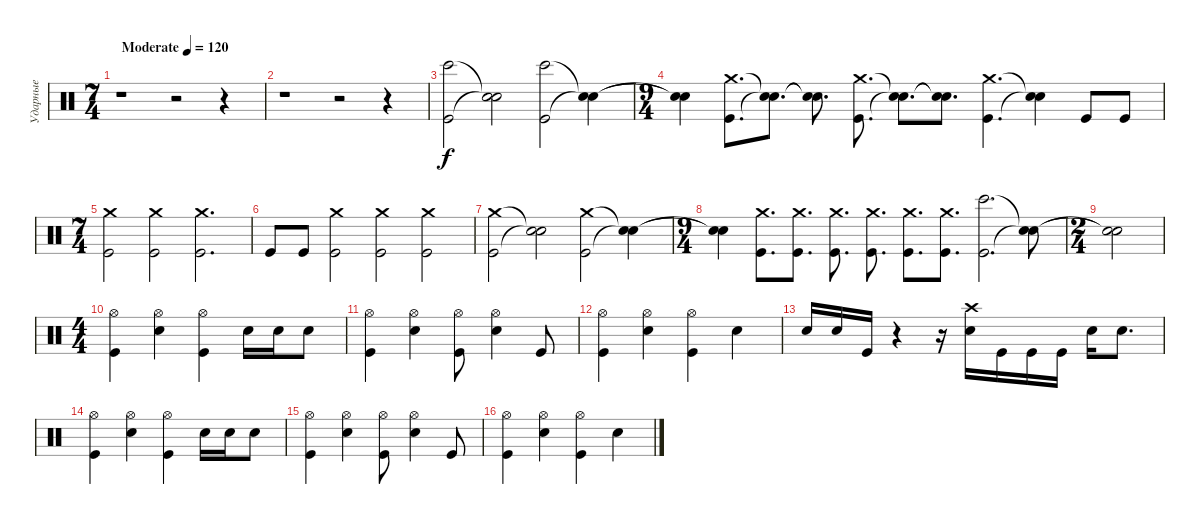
\track ("Ударные" "Ударные") {instrument percussion}
\staff {score}
\articulation defaults
\ts (7 4)
\tempo (120 "Moderate")
\clef neutral
\ks c
r.1{dy f} r.2 r.4 |
r.1 r.2 r.4 |
("Bongo High (hit)" "Kick (hit)").2 ("Snare (hit)"{t} "Snare (hit)"{t}).2 ("Bongo High (hit)" "Kick (hit)").2 ("Snare (hit)"{t} "Snare (hit)"{t}).4 |
\ts (9 4)
("Snare (hit)"{t} "Snare (hit)"{t}).4 ("Crash medium (hit)" "Kick (hit)").8{d} ("Snare (hit)"{t} "Snare (hit)"{t}).8{d} ("Snare (hit)"{t} "Snare (hit)"{t}).8{d} ("Crash medium (hit)" "Kick (hit)").8{d} ("Snare (hit)"{t} "Snare (hit)"{t}).8{d} ("Snare (hit)"{t} "Snare (hit)"{t}).8{d} ("Crash medium (hit)" "Kick (hit)").4{d} ("Snare (hit)"{t} "Snare (hit)"{t}).4 "Kick (hit)".8 "Kick (hit)".8 |
\ts (7 4)
("Crash medium (hit)" "Kick (hit)").2 ("Crash medium (hit)" "Kick (hit)").2 ("Crash medium (hit)" "Kick (hit)").2{d} |
"Kick (hit)".8 "Kick (hit)".8 ("Crash medium (hit)" "Kick (hit)").2 ("Crash medium (hit)" "Kick (hit)").2 ("Crash medium (hit)" "Kick (hit)").2 |
("Crash medium (hit)" "Kick (hit)").2 ("Snare (hit)"{t} "Snare (hit)"{t}).2 ("Crash medium (hit)" "Kick (hit)").2 ("Snare (hit)"{t} "Snare (hit)"{t}).4 |
\ts (9 4)
("Snare (hit)"{t} "Snare (hit)"{t}).4 ("Crash medium (hit)" "Kick (hit)").8{d} ("Crash medium (hit)" "Kick (hit)").8{d} ("Crash medium (hit)" "Kick (hit)").8{d} ("Crash medium (hit)" "Kick (hit)").8{d} ("Crash medium (hit)" "Kick (hit)").8{d} ("Crash medium (hit)" "Kick (hit)").8{d} ("Bongo High (hit)" "Kick (hit)").2{d} ("Snare (hit)"{t} "Snare (hit)"{t}).8 |
\ts (2 4)
("Snare (hit)"{t} "Snare (hit)"{t}).2 |
\ts (4 4)
("Kick (hit)" "Hi-Hat (open)").4 ("Snare (hit) 2" "Hi-Hat (open)").4 ("Kick (hit)" "Hi-Hat (open)").4 "Snare (hit) 2".16 "Snare (hit) 2".16 "Snare (hit) 2".8 |
("Hi-Hat (open)" "Kick (hit)").4 ("Hi-Hat (open)" "Snare (hit) 2").4 ("Hi-Hat (open)" "Kick (hit)").8 ("Hi-Hat (open)" "Snare (hit) 2").4 "Kick (hit)".8 |
("Hi-Hat (open)" "Kick (hit)").4 ("Hi-Hat (open)" "Snare (hit) 2").4 ("Hi-Hat (open)" "Kick (hit)").4 "Snare (hit) 2".4 |
"Snare (hit) 2".16 "Snare (hit) 2".16 "Kick (hit)".16 r.4 r.16 ("Crash high (hit)" "Snare (hit) 2").16 "Kick (hit)".16 "Kick (hit)".16 "Kick (hit)".16 "Snare (hit) 2".16 "Snare (hit) 2".8{d} |
("Kick (hit)" "Hi-Hat (open)").4 ("Snare (hit) 2" "Hi-Hat (open)").4 ("Kick (hit)" "Hi-Hat (open)").4 "Snare (hit) 2".16 "Snare (hit) 2".16 "Snare (hit) 2".8 |
("Hi-Hat (open)" "Kick (hit)").4 ("Hi-Hat (open)" "Snare (hit) 2").4 ("Hi-Hat (open)" "Kick (hit)").8 ("Hi-Hat (open)" "Snare (hit) 2").4 "Kick (hit)".8 |
("Hi-Hat (open)" "Kick (hit)").4 ("Hi-Hat (open)" "Snare (hit) 2").4 ("Hi-Hat (open)" "Kick (hit)").4 "Snare (hit) 2".4
